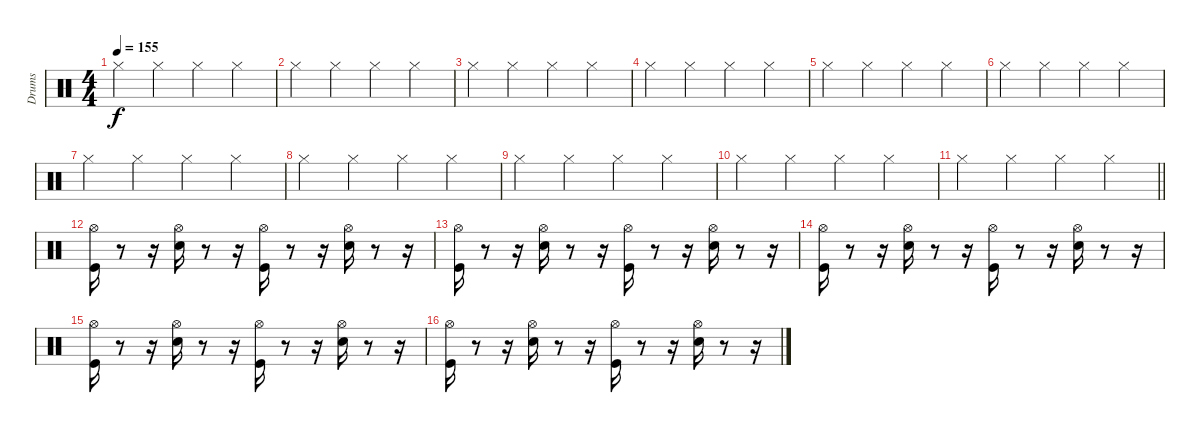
\track ("Drums" "Drums") {instrument percussion}
\staff {score}
\articulation defaults
\ts (4 4)
\tempo 155
\clef neutral
\ks c "Hi-Hat (closed)".4{dy f} "Hi-Hat (closed)".4 "Hi-Hat (closed)".4 "Hi-Hat (closed)".4
|
"Hi-Hat (closed)".4 "Hi-Hat (closed)".4 "Hi-Hat (closed)".4 "Hi-Hat (closed)".4 |
"Hi-Hat (closed)".4 "Hi-Hat (closed)".4 "Hi-Hat (closed)".4 "Hi-Hat (closed)".4 |
"Hi-Hat (closed)".4 "Hi-Hat (closed)".4 "Hi-Hat (closed)".4 "Hi-Hat (closed)".4 |
"Hi-Hat (closed)".4 "Hi-Hat (closed)".4 "Hi-Hat (closed)".4 "Hi-Hat (closed)".4 |
"Hi-Hat (closed)".4 "Hi-Hat (closed)".4 "Hi-Hat (closed)".4 "Hi-Hat (closed)".4 |
"Hi-Hat (closed)".4 "Hi-Hat (closed)".4 "Hi-Hat (closed)".4 "Hi-Hat (closed)".4 |
"Hi-Hat (closed)".4 "Hi-Hat (closed)".4 "Hi-Hat (closed)".4 "Hi-Hat (closed)".4 |
"Hi-Hat (closed)".4 "Hi-Hat (closed)".4 "Hi-Hat (closed)".4 "Hi-Hat (closed)".4 |
"Hi-Hat (closed)".4 "Hi-Hat (closed)".4 "Hi-Hat (closed)".4 "Hi-Hat (closed)".4 |
\barLineRight lightlight "Hi-Hat (closed)".4 "Hi-Hat (closed)".4 "Hi-Hat (closed)".4 "Hi-Hat (closed)".4
|
("Hi-Hat (open)" "Kick (hit)").16 r.8 r.16 ("Hi-Hat (open)" "Snare (hit) 2").16 r.8 r.16 ("Kick (hit)" "Hi-Hat (open)").16 r.8 r.16 ("Snare (hit) 2" "Hi-Hat (open)").16 r.8 r.16 |
("Hi-Hat (open)" "Kick (hit)").16 r.8 r.16 ("Hi-Hat (open)" "Snare (hit) 2").16 r.8 r.16 ("Kick (hit)" "Hi-Hat (open)").16 r.8 r.16 ("Snare (hit) 2" "Hi-Hat (open)").16 r.8 r.16 |
("Hi-Hat (open)" "Kick (hit)").16 r.8 r.16 ("Hi-Hat (open)" "Snare (hit) 2").16 r.8 r.16 ("Kick (hit)" "Hi-Hat (open)").16 r.8 r.16 ("Snare (hit) 2" "Hi-Hat (open)").16 r.8 r.16 |
("Hi-Hat (open)" "Kick (hit)").16 r.8 r.16 ("Hi-Hat (open)" "Snare (hit) 2").16 r.8 r.16 ("Kick (hit)" "Hi-Hat (open)").16 r.8 r.16 ("Snare (hit) 2" "Hi-Hat (open)").16 r.8 r.16 |
("Hi-Hat (open)" "Kick (hit)").16 r.8 r.16 ("Hi-Hat (open)" "Snare (hit) 2").16 r.8 r.16 ("Kick (hit)" "Hi-Hat (open)").16 r.8 r.16 ("Snare (hit) 2" "Hi-Hat (open)").16 r.8 r.16
